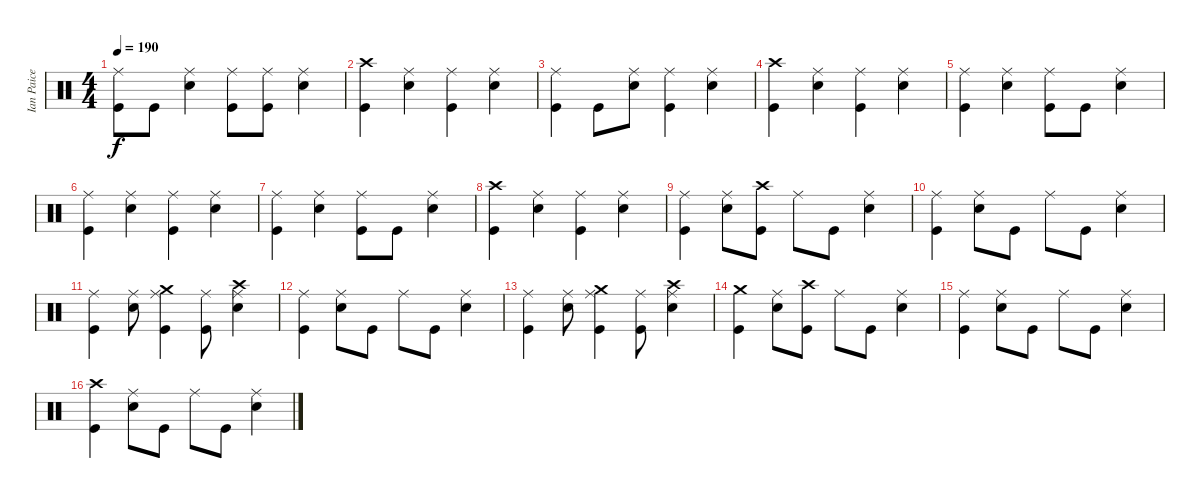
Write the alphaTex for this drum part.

\track ("Ian Paice" "Ian Paice") {instrument percussion}
\staff {score}
\articulation defaults
\ts (4 4)
\tempo 190
\clef neutral
\ks c
("Ride (middle)" "Kick (hit)").8{dy f} "Kick (hit)".8 ("Snare (hit) 2" "Ride (middle)").4 ("Kick (hit)" "Ride (middle)").8 ("Ride (middle)" "Kick (hit)").8 ("Snare (hit) 2" "Ride (middle)").4 |
("Kick (hit)" "Crash high (hit)").4 ("Ride (middle)" "Snare (hit) 2").4 ("Ride (middle)" "Kick (hit)").4 ("Ride (middle)" "Snare (hit) 2").4 |
("Ride (middle)" "Kick (hit)").4 "Kick (hit)".8 ("Snare (hit) 2" "Ride (middle)").8 ("Kick (hit)" "Ride (middle)").4 ("Snare (hit) 2" "Ride (middle)").4 |
("Kick (hit)" "Crash high (hit)").4 ("Ride (middle)" "Snare (hit) 2").4 ("Ride (middle)" "Kick (hit)").4 ("Ride (middle)" "Snare (hit) 2").4 |
("Kick (hit)" "Ride (middle)").4 ("Snare (hit) 2" "Ride (middle)").4 ("Kick (hit)" "Ride (middle)").8 "Kick (hit)".8 ("Snare (hit) 2" "Ride (middle)").4 |
("Kick (hit)" "Ride (middle)").4 ("Ride (middle)" "Snare (hit) 2").4 ("Ride (middle)" "Kick (hit)").4 ("Ride (middle)" "Snare (hit) 2").4 |
("Kick (hit)" "Ride (middle)").4 ("Snare (hit) 2" "Ride (middle)").4 ("Kick (hit)" "Ride (middle)").8 "Kick (hit)".8 ("Snare (hit) 2" "Ride (middle)").4 |
("Crash high (hit)" "Kick (hit)").4 ("Snare (hit) 2" "Ride (middle)").4 ("Ride (middle)" "Kick (hit)").4 ("Ride (middle)" "Snare (hit) 2").4 |
("Kick (hit)" "Ride (middle)").4 ("Snare (hit) 2" "Ride (middle)").8 ("Crash high (hit)" "Kick (hit)").8 "Ride (middle)".8 "Kick (hit)".8 ("Snare (hit) 2" "Ride (middle)").4 |
("Kick (hit)" "Ride (middle)").4 ("Snare (hit) 2" "Ride (middle)").8 "Kick (hit)".8 "Ride (middle)".8 "Kick (hit)".8 ("Snare (hit) 2" "Ride (middle)").4 |
("Kick (hit)" "Ride (middle)").4 ("Snare (hit) 2" "Ride (middle)").8 ("Ride (middle)" "Crash medium (hit)" "Kick (hit)").4 ("Kick (hit)" "Ride (middle)").8 ("Ride (middle)" "Crash high (hit)" "Snare (hit) 2").4 |
("Kick (hit)" "Ride (middle)").4 ("Ride (middle)" "Snare (hit) 2").8 "Kick (hit)".8 "Ride (middle)".8 "Kick (hit)".8 ("Snare (hit) 2" "Ride (middle)").4 |
("Kick (hit)" "Ride (middle)").4 ("Snare (hit) 2" "Ride (middle)").8 ("Ride (middle)" "Kick (hit)" "Crash medium (hit)").4 ("Kick (hit)" "Ride (middle)").8 ("Ride (middle)" "Snare (hit) 2" "Crash high (hit)").4 |
("Crash medium (hit)" "Kick (hit)").4 ("Snare (hit) 2" "Ride (middle)").8 ("Kick (hit)" "Crash high (hit)").8 "Ride (middle)".8 "Kick (hit)".8 ("Snare (hit) 2" "Ride (middle)").4 |
("Kick (hit)" "Ride (middle)").4 ("Snare (hit) 2" "Ride (middle)").8 "Kick (hit)".8 "Ride (middle)".8 "Kick (hit)".8 ("Ride (middle)" "Snare (hit) 2").4 |
("Crash high (hit)" "Kick (hit)").4 ("Ride (middle)" "Snare (hit) 2").8 "Kick (hit)".8 "Ride (middle)".8 "Kick (hit)".8 ("Snare (hit) 2" "Ride (middle)").4
